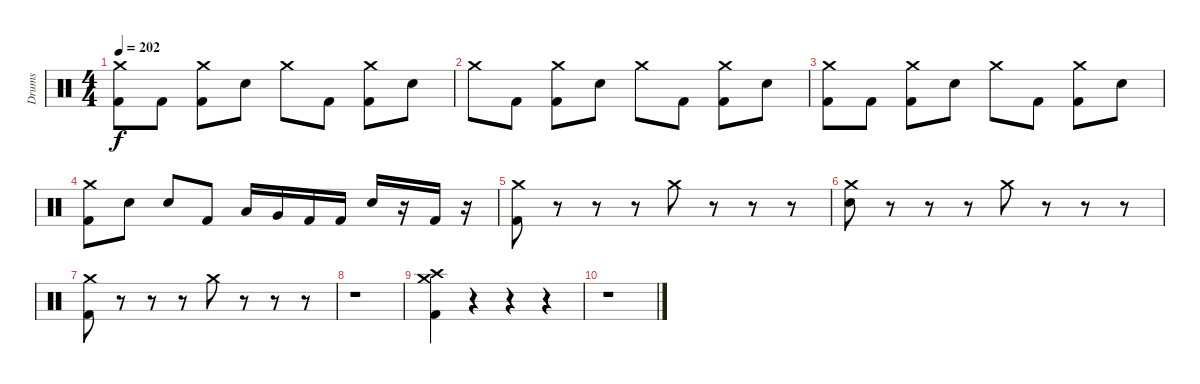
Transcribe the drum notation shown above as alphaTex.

\track ("Drums" "Drums") {instrument percussion}
\staff {score}
\articulation defaults
\ts (4 4)
\tempo 202
\clef neutral
\ks c
("Crash medium (hit)" "Kick (hit) 2").8{dy f} "Kick (hit) 2".8 ("Crash medium (hit)" "Kick (hit) 2").8 "Electric Snare (hit)".8 "Crash medium (hit)".8 "Kick (hit) 2".8 ("Crash medium (hit)" "Kick (hit) 2").8 "Electric Snare (hit)".8 |
"Crash medium (hit)".8 "Kick (hit) 2".8 ("Crash medium (hit)" "Kick (hit) 2").8 "Electric Snare (hit)".8 "Crash medium (hit)".8 "Kick (hit) 2".8 ("Crash medium (hit)" "Kick (hit) 2").8 "Electric Snare (hit)".8 |
("Crash medium (hit)" "Kick (hit) 2").8 "Kick (hit) 2".8 ("Crash medium (hit)" "Kick (hit) 2").8 "Electric Snare (hit)".8 "Crash medium (hit)".8 "Kick (hit) 2".8 ("Crash medium (hit)" "Kick (hit) 2").8 "Electric Snare (hit)".8 |
("Crash medium (hit)" "Kick (hit) 2").8 "Electric Snare (hit)".8 "Electric Snare (hit)".8 "Kick (hit) 2".8 "Low Tom (hit)".16 "Very Low Tom (hit)".16 "Kick (hit) 2".16 "Kick (hit) 2".16 "Electric Snare (hit)".16 r.16 "Kick (hit) 2".16 r.16 |
("Crash medium (hit)" "Kick (hit) 2").8 r.8 r.8 r.8 "Crash medium (hit)".8 r.8 r.8 r.8 |
("Crash medium (hit)" "Electric Snare (hit)").8 r.8 r.8 r.8 "Crash medium (hit)".8 r.8 r.8 r.8 |
("Crash medium (hit)" "Kick (hit) 2").8 r.8 r.8 r.8 "Crash medium (hit)".8 r.8 r.8 r.8 |
r.1 |
("Crash medium (hit)" "Crash high (hit)" "Kick (hit) 2").4 r.4 r.4 r.4 |
r.1
